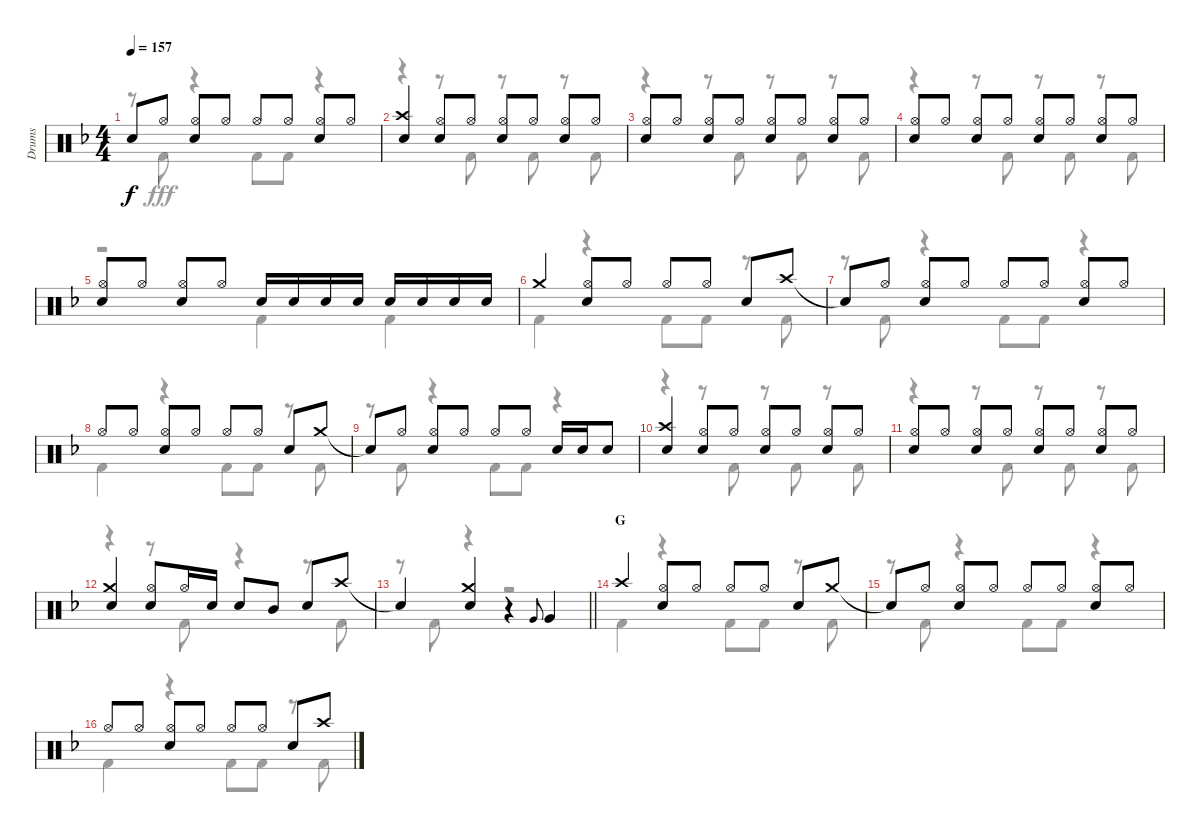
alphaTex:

\track ("Drums" "Drums") {instrument percussion}
\staff {score}
\articulation defaults
\voice
\ts (4 4)
\tempo 157
\clef neutral
\ks f "Snare (hit)"{t}.8{dy f} "Hi-Hat (open)".8
("Hi-Hat (open)" "Snare (hit) 2").8 "Hi-Hat (open)".8 "Hi-Hat (open)".8 "Hi-Hat (open)".8 ("Hi-Hat (open)" "Snare (hit) 2").8 "Hi-Hat (open)".8 |
("Crash high (hit)" "Snare (hit) 2").4 ("Hi-Hat (open)" "Snare (hit) 2").8 "Hi-Hat (open)".8 ("Hi-Hat (open)" "Snare (hit) 2").8 "Hi-Hat (open)".8 ("Hi-Hat (open)" "Snare (hit) 2").8 "Hi-Hat (open)".8 |
("Hi-Hat (open)" "Snare (hit) 2").8 "Hi-Hat (open)".8 ("Hi-Hat (open)" "Snare (hit) 2").8 "Hi-Hat (open)".8 ("Hi-Hat (open)" "Snare (hit) 2").8 "Hi-Hat (open)".8 ("Hi-Hat (open)" "Snare (hit) 2").8 "Hi-Hat (open)".8 |
("Hi-Hat (open)" "Snare (hit) 2").8 "Hi-Hat (open)".8 ("Hi-Hat (open)" "Snare (hit) 2").8 "Hi-Hat (open)".8 ("Hi-Hat (open)" "Snare (hit) 2").8 "Hi-Hat (open)".8 ("Hi-Hat (open)" "Snare (hit) 2").8 "Hi-Hat (open)".8 |
("Hi-Hat (open)" "Snare (hit) 2").8 "Hi-Hat (open)".8 ("Hi-Hat (open)" "Snare (hit) 2").8 "Hi-Hat (open)".8 "Snare (hit) 2".16 "Snare (hit) 2".16 "Snare (hit) 2".16 "Snare (hit) 2".16 "Snare (hit) 2".16 "Snare (hit) 2".16 "Snare (hit) 2".16 "Snare (hit) 2".16 |
"Crash medium (hit)".4 ("Hi-Hat (open)" "Snare (hit) 2").8 "Hi-Hat (open)".8 "Hi-Hat (open)".8 "Hi-Hat (open)".8 "Snare (hit) 2".8 "Crash high (hit)".8 |
"Snare (hit)"{t}.8 "Hi-Hat (open)".8 ("Hi-Hat (open)" "Snare (hit) 2").8 "Hi-Hat (open)".8 "Hi-Hat (open)".8 "Hi-Hat (open)".8 ("Hi-Hat (open)" "Snare (hit) 2").8 "Hi-Hat (open)".8 |
"Hi-Hat (open)".8 "Hi-Hat (open)".8 ("Hi-Hat (open)" "Snare (hit) 2").8 "Hi-Hat (open)".8 "Hi-Hat (open)".8 "Hi-Hat (open)".8 "Snare (hit) 2".8 "Crash medium (hit)".8 |
"Snare (hit)"{t}.8 "Hi-Hat (open)".8 ("Hi-Hat (open)" "Snare (hit) 2").8 "Hi-Hat (open)".8 "Hi-Hat (open)".8 "Hi-Hat (open)".8 "Snare (hit) 2".16 "Snare (hit) 2".16 "Snare (hit) 2".8 |
("Crash high (hit)" "Snare (hit) 2").4 ("Hi-Hat (open)" "Snare (hit) 2").8 "Hi-Hat (open)".8 ("Hi-Hat (open)" "Snare (hit) 2").8 "Hi-Hat (open)".8 ("Hi-Hat (open)" "Snare (hit) 2").8 "Hi-Hat (open)".8 |
("Hi-Hat (open)" "Snare (hit) 2").8 "Hi-Hat (open)".8 ("Hi-Hat (open)" "Snare (hit) 2").8 "Hi-Hat (open)".8 ("Hi-Hat (open)" "Snare (hit) 2").8 "Hi-Hat (open)".8 ("Hi-Hat (open)" "Snare (hit) 2").8 "Hi-Hat (open)".8 |
("Crash medium (hit)" "Snare (hit) 2").4 ("Hi-Hat (open)" "Snare (hit) 2").8 "Hi-Hat (open)".16 "Snare (hit) 2".16 "Snare (hit) 2".8 "Mid Tom (hit)".8 "Snare (hit) 2".8 "Crash high (hit)".8 |
\barLineRight lightlight "Snare (hit)"{t}.4
("Crash medium (hit)" "Snare (hit) 2").4 r.4 "Very Low Tom (hit)".8{gr onbeat} "Very Low Tom (hit)".4 |
\section ("" "G")
"Crash high (hit)".4 ("Hi-Hat (open)" "Snare (hit) 2").8 "Hi-Hat (open)".8 "Hi-Hat (open)".8 "Hi-Hat (open)".8 "Snare (hit) 2".8 "Crash medium (hit)".8 |
"Snare (hit)"{t}.8 "Hi-Hat (open)".8 ("Hi-Hat (open)" "Snare (hit) 2").8 "Hi-Hat (open)".8 "Hi-Hat (open)".8 "Hi-Hat (open)".8 ("Hi-Hat (open)" "Snare (hit) 2").8 "Hi-Hat (open)".8 |
"Hi-Hat (open)".8 "Hi-Hat (open)".8 ("Hi-Hat (open)" "Snare (hit) 2").8 "Hi-Hat (open)".8 "Hi-Hat (open)".8 "Hi-Hat (open)".8 "Snare (hit) 2".8 "Crash high (hit)".8
\voice
\clef neutral
\ottava regular
\simile none
\ks f
r.8{dy fff} "Kick (hit) 2".8 r.4 "Kick (hit) 2".8 "Kick (hit) 2".8 r.4 |
r.4 r.8 "Kick (hit) 2".8 r.8 "Kick (hit) 2".8 r.8 "Kick (hit) 2".8 |
r.4 r.8 "Kick (hit) 2".8 r.8 "Kick (hit) 2".8 r.8 "Kick (hit) 2".8 |
r.4 r.8 "Kick (hit) 2".8 r.8 "Kick (hit) 2".8 r.8 "Kick (hit) 2".8 |
r.2 "Kick (hit) 2".4 "Kick (hit) 2".4 |
"Kick (hit) 2".4 r.4 "Kick (hit) 2".8 "Kick (hit) 2".8 r.8 "Kick (hit) 2".8 |
r.8 "Kick (hit) 2".8 r.4 "Kick (hit) 2".8 "Kick (hit) 2".8 r.4 |
"Kick (hit) 2".4 r.4 "Kick (hit) 2".8 "Kick (hit) 2".8 r.8 "Kick (hit) 2".8 |
r.8 "Kick (hit) 2".8 r.4 "Kick (hit) 2".8 "Kick (hit) 2".8 r.4 |
r.4 r.8 "Kick (hit) 2".8 r.8 "Kick (hit) 2".8 r.8 "Kick (hit) 2".8 |
r.4 r.8 "Kick (hit) 2".8 r.8 "Kick (hit) 2".8 r.8 "Kick (hit) 2".8 |
r.4 r.8 "Kick (hit) 2".8 r.4 r.8 "Kick (hit) 2".8 |
\barLineRight lightlight
r.8 "Kick (hit) 2".8 r.4 r.2 |
"Kick (hit) 2".4 r.4 "Kick (hit) 2".8 "Kick (hit) 2".8 r.8 "Kick (hit) 2".8 |
r.8 "Kick (hit) 2".8 r.4 "Kick (hit) 2".8 "Kick (hit) 2".8 r.4 |
"Kick (hit) 2".4 r.4 "Kick (hit) 2".8 "Kick (hit) 2".8 r.8 "Kick (hit) 2".8
